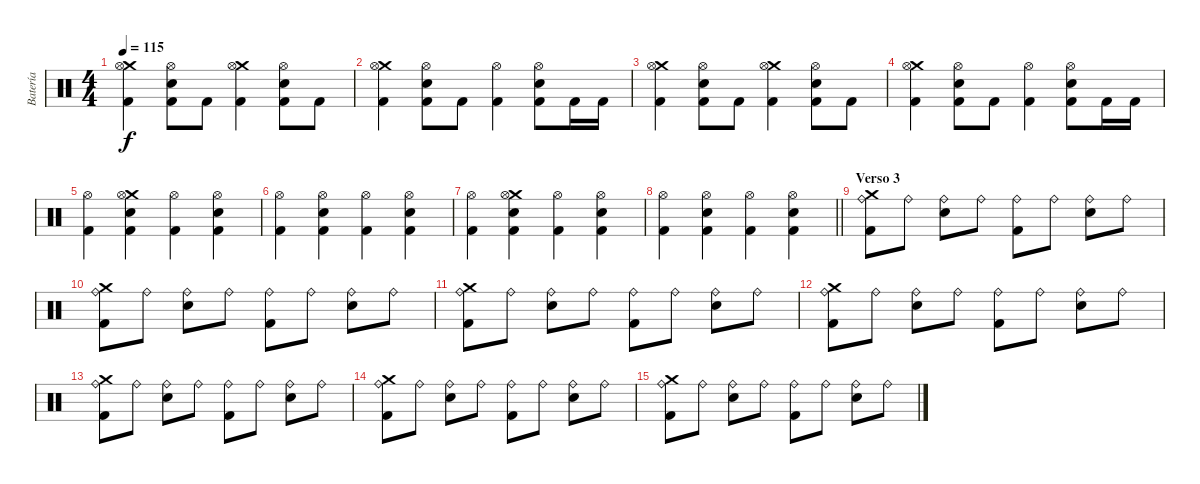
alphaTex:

\track ("Batería" "Batería") {instrument percussion}
\staff {score}
\articulation defaults
\ts (4 4)
\tempo 115
\clef neutral
\ks c
("Crash medium (hit)" "Hi-Hat (open)" "Kick (hit) 2").4{dy f} ("Hi-Hat (open)" "Snare (hit) 2" "Kick (hit) 2").8 "Kick (hit) 2".8 ("Crash medium (hit)" "Hi-Hat (open)" "Kick (hit) 2").4 ("Hi-Hat (open)" "Snare (hit) 2" "Kick (hit) 2").8 "Kick (hit) 2".8 |
("Crash medium (hit)" "Hi-Hat (open)" "Kick (hit) 2").4 ("Hi-Hat (open)" "Snare (hit) 2" "Kick (hit) 2").8 "Kick (hit) 2".8 ("Hi-Hat (open)" "Kick (hit) 2").4 ("Hi-Hat (open)" "Snare (hit) 2" "Kick (hit) 2").8 "Kick (hit) 2".16 "Kick (hit) 2".16 |
("Crash medium (hit)" "Hi-Hat (open)" "Kick (hit) 2").4 ("Hi-Hat (open)" "Snare (hit) 2" "Kick (hit) 2").8 "Kick (hit) 2".8 ("Crash medium (hit)" "Hi-Hat (open)" "Kick (hit) 2").4 ("Hi-Hat (open)" "Snare (hit) 2" "Kick (hit) 2").8 "Kick (hit) 2".8 |
("Crash medium (hit)" "Hi-Hat (open)" "Kick (hit) 2").4 ("Hi-Hat (open)" "Snare (hit) 2" "Kick (hit) 2").8 "Kick (hit) 2".8 ("Hi-Hat (open)" "Kick (hit) 2").4 ("Hi-Hat (open)" "Snare (hit) 2" "Kick (hit) 2").8 "Kick (hit) 2".16 "Kick (hit) 2".16 |
("Hi-Hat (open)" "Kick (hit) 2").4 ("Crash medium (hit)" "Hi-Hat (open)" "Snare (hit) 2" "Kick (hit) 2").4 ("Hi-Hat (open)" "Kick (hit) 2").4 ("Hi-Hat (open)" "Snare (hit) 2" "Kick (hit) 2").4 |
("Hi-Hat (open)" "Kick (hit) 2").4 ("Hi-Hat (open)" "Snare (hit) 2" "Kick (hit) 2").4 ("Hi-Hat (open)" "Kick (hit) 2").4 ("Hi-Hat (open)" "Snare (hit) 2" "Kick (hit) 2").4 |
("Hi-Hat (open)" "Kick (hit) 2").4 ("Crash medium (hit)" "Hi-Hat (open)" "Snare (hit) 2" "Kick (hit) 2").4 ("Hi-Hat (open)" "Kick (hit) 2").4 ("Hi-Hat (open)" "Snare (hit) 2" "Kick (hit) 2").4 |
\barLineRight lightlight
("Hi-Hat (open)" "Kick (hit) 2").4 ("Hi-Hat (open)" "Snare (hit) 2" "Kick (hit) 2").4 ("Hi-Hat (open)" "Kick (hit) 2").4 ("Hi-Hat (open)" "Snare (hit) 2" "Kick (hit) 2").4 |
\section ("" "Verso 3")
("Ride (bell)" "Crash medium (hit)" "Kick (hit) 2").8 "Ride (bell)".8 ("Ride (bell)" "Snare (hit) 2").8 "Ride (bell)".8 ("Ride (bell)" "Kick (hit) 2").8 "Ride (bell)".8 ("Ride (bell)" "Snare (hit) 2").8 "Ride (bell)".8 |
("Ride (bell)" "Crash medium (hit)" "Kick (hit) 2").8 "Ride (bell)".8 ("Ride (bell)" "Snare (hit) 2").8 "Ride (bell)".8 ("Ride (bell)" "Kick (hit) 2").8 "Ride (bell)".8 ("Ride (bell)" "Snare (hit) 2").8 "Ride (bell)".8 |
("Ride (bell)" "Crash medium (hit)" "Kick (hit) 2").8 "Ride (bell)".8 ("Ride (bell)" "Snare (hit) 2").8 "Ride (bell)".8 ("Ride (bell)" "Kick (hit) 2").8 "Ride (bell)".8 ("Ride (bell)" "Snare (hit) 2").8 "Ride (bell)".8 |
("Ride (bell)" "Crash medium (hit)" "Kick (hit) 2").8 "Ride (bell)".8 ("Ride (bell)" "Snare (hit) 2").8 "Ride (bell)".8 ("Ride (bell)" "Kick (hit) 2").8 "Ride (bell)".8 ("Ride (bell)" "Snare (hit) 2").8 "Ride (bell)".8 |
("Ride (bell)" "Crash medium (hit)" "Kick (hit) 2").8 "Ride (bell)".8 ("Ride (bell)" "Snare (hit) 2").8 "Ride (bell)".8 ("Ride (bell)" "Kick (hit) 2").8 "Ride (bell)".8 ("Ride (bell)" "Snare (hit) 2").8 "Ride (bell)".8 |
("Ride (bell)" "Crash medium (hit)" "Kick (hit) 2").8 "Ride (bell)".8 ("Ride (bell)" "Snare (hit) 2").8 "Ride (bell)".8 ("Ride (bell)" "Kick (hit) 2").8 "Ride (bell)".8 ("Ride (bell)" "Snare (hit) 2").8 "Ride (bell)".8 |
("Ride (bell)" "Crash medium (hit)" "Kick (hit) 2").8 "Ride (bell)".8 ("Ride (bell)" "Snare (hit) 2").8 "Ride (bell)".8 ("Ride (bell)" "Kick (hit) 2").8 "Ride (bell)".8 ("Ride (bell)" "Snare (hit) 2").8 "Ride (bell)".8
